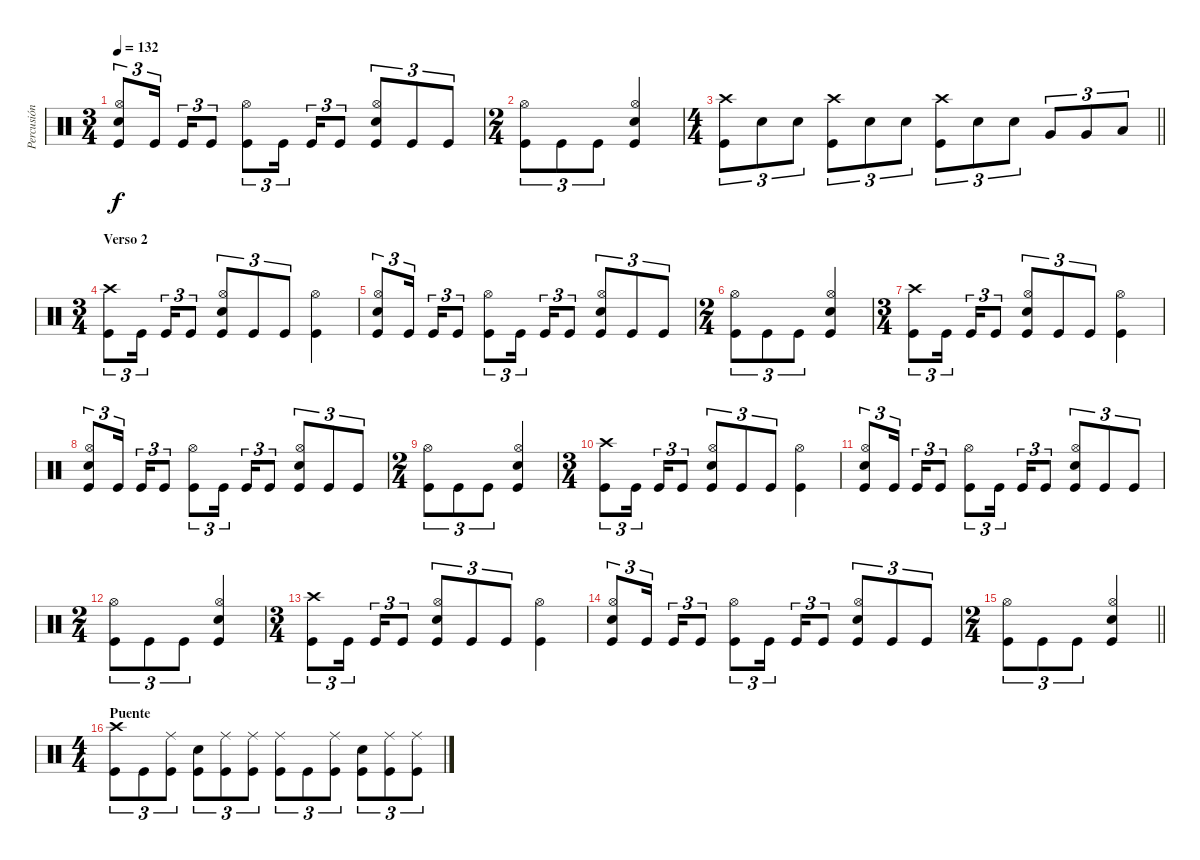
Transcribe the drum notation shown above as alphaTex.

\track ("Percusión" "Percusión") {instrument percussion}
\staff
\articulation defaults
\ts (3 4)
\tempo 132
\clef neutral
\ks c
("Kick (hit)" "Hi-Hat (open)" "Electric Snare (hit)").8{tu (3 2) dy f} "Kick (hit)".16{tu (3 2) beam splitsecondary} "Kick (hit)".16{tu (3 2)} "Kick (hit)".8{tu (3 2)} ("Kick (hit)" "Hi-Hat (open)").8{tu (3 2)} "Kick (hit)".16{tu (3 2) beam splitsecondary} "Kick (hit)".16{tu (3 2)} "Kick (hit)".8{tu (3 2)} ("Kick (hit)" "Hi-Hat (open)" "Electric Snare (hit)").8{tu (3 2)} "Kick (hit)".8{tu (3 2)} "Kick (hit)".8{tu (3 2)} |
\ts (2 4)
("Kick (hit)" "Hi-Hat (open)").8{tu (3 2)} "Kick (hit)".8{tu (3 2)} "Kick (hit)".8{tu (3 2)} ("Kick (hit)" "Hi-Hat (open)" "Electric Snare (hit)").4 |
\ts (4 4)
\barLineRight lightlight
("Kick (hit)" "Crash high (hit)").8{tu (3 2)} "Electric Snare (hit)".8{tu (3 2)} "Electric Snare (hit)".8{tu (3 2)} ("Kick (hit)" "Crash high (hit)").8{tu (3 2)} "Electric Snare (hit)".8{tu (3 2)} "Electric Snare (hit)".8{tu (3 2)} ("Kick (hit)" "Crash high (hit)").8{tu (3 2)} "Electric Snare (hit)".8{tu (3 2)} "Electric Snare (hit)".8{tu (3 2)} "Very Low Tom (hit)".8{tu (3 2)} "Very Low Tom (hit)".8{tu (3 2)} "Low Floor Tom (hit)".8{tu (3 2)} |
\ts (3 4)
\section ("" "Verso 2")
("Kick (hit)" "Crash high (hit)").8{tu (3 2)} "Kick (hit)".16{tu (3 2) beam splitsecondary} "Kick (hit)".16{tu (3 2)} "Kick (hit)".8{tu (3 2)} ("Kick (hit)" "Hi-Hat (open)" "Electric Snare (hit)").8{tu (3 2)} "Kick (hit)".8{tu (3 2)} "Kick (hit)".8{tu (3 2)} ("Kick (hit)" "Hi-Hat (open)").4 |
("Kick (hit)" "Hi-Hat (open)" "Electric Snare (hit)").8{tu (3 2)} "Kick (hit)".16{tu (3 2) beam splitsecondary} "Kick (hit)".16{tu (3 2)} "Kick (hit)".8{tu (3 2)} ("Kick (hit)" "Hi-Hat (open)").8{tu (3 2)} "Kick (hit)".16{tu (3 2) beam splitsecondary} "Kick (hit)".16{tu (3 2)} "Kick (hit)".8{tu (3 2)} ("Kick (hit)" "Hi-Hat (open)" "Electric Snare (hit)").8{tu (3 2)} "Kick (hit)".8{tu (3 2)} "Kick (hit)".8{tu (3 2)} |
\ts (2 4)
("Kick (hit)" "Hi-Hat (open)").8{tu (3 2)} "Kick (hit)".8{tu (3 2)} "Kick (hit)".8{tu (3 2)} ("Kick (hit)" "Hi-Hat (open)" "Electric Snare (hit)").4 |
\ts (3 4)
("Kick (hit)" "Crash high (hit)").8{tu (3 2)} "Kick (hit)".16{tu (3 2) beam splitsecondary} "Kick (hit)".16{tu (3 2)} "Kick (hit)".8{tu (3 2)} ("Kick (hit)" "Hi-Hat (open)" "Electric Snare (hit)").8{tu (3 2)} "Kick (hit)".8{tu (3 2)} "Kick (hit)".8{tu (3 2)} ("Kick (hit)" "Hi-Hat (open)").4 |
("Kick (hit)" "Hi-Hat (open)" "Electric Snare (hit)").8{tu (3 2)} "Kick (hit)".16{tu (3 2) beam splitsecondary} "Kick (hit)".16{tu (3 2)} "Kick (hit)".8{tu (3 2)} ("Kick (hit)" "Hi-Hat (open)").8{tu (3 2)} "Kick (hit)".16{tu (3 2) beam splitsecondary} "Kick (hit)".16{tu (3 2)} "Kick (hit)".8{tu (3 2)} ("Kick (hit)" "Hi-Hat (open)" "Electric Snare (hit)").8{tu (3 2)} "Kick (hit)".8{tu (3 2)} "Kick (hit)".8{tu (3 2)} |
\ts (2 4)
("Kick (hit)" "Hi-Hat (open)").8{tu (3 2)} "Kick (hit)".8{tu (3 2)} "Kick (hit)".8{tu (3 2)} ("Kick (hit)" "Hi-Hat (open)" "Electric Snare (hit)").4 |
\ts (3 4)
("Kick (hit)" "Crash high (hit)").8{tu (3 2)} "Kick (hit)".16{tu (3 2) beam splitsecondary} "Kick (hit)".16{tu (3 2)} "Kick (hit)".8{tu (3 2)} ("Kick (hit)" "Hi-Hat (open)" "Electric Snare (hit)").8{tu (3 2)} "Kick (hit)".8{tu (3 2)} "Kick (hit)".8{tu (3 2)} ("Kick (hit)" "Hi-Hat (open)").4 |
("Kick (hit)" "Hi-Hat (open)" "Electric Snare (hit)").8{tu (3 2)} "Kick (hit)".16{tu (3 2) beam splitsecondary} "Kick (hit)".16{tu (3 2)} "Kick (hit)".8{tu (3 2)} ("Kick (hit)" "Hi-Hat (open)").8{tu (3 2)} "Kick (hit)".16{tu (3 2) beam splitsecondary} "Kick (hit)".16{tu (3 2)} "Kick (hit)".8{tu (3 2)} ("Kick (hit)" "Hi-Hat (open)" "Electric Snare (hit)").8{tu (3 2)} "Kick (hit)".8{tu (3 2)} "Kick (hit)".8{tu (3 2)} |
\ts (2 4)
("Kick (hit)" "Hi-Hat (open)").8{tu (3 2)} "Kick (hit)".8{tu (3 2)} "Kick (hit)".8{tu (3 2)} ("Kick (hit)" "Hi-Hat (open)" "Electric Snare (hit)").4 |
\ts (3 4)
("Kick (hit)" "Crash high (hit)").8{tu (3 2)} "Kick (hit)".16{tu (3 2) beam splitsecondary} "Kick (hit)".16{tu (3 2)} "Kick (hit)".8{tu (3 2)} ("Kick (hit)" "Hi-Hat (open)" "Electric Snare (hit)").8{tu (3 2)} "Kick (hit)".8{tu (3 2)} "Kick (hit)".8{tu (3 2)} ("Kick (hit)" "Hi-Hat (open)").4 |
("Kick (hit)" "Hi-Hat (open)" "Electric Snare (hit)").8{tu (3 2)} "Kick (hit)".16{tu (3 2) beam splitsecondary} "Kick (hit)".16{tu (3 2)} "Kick (hit)".8{tu (3 2)} ("Kick (hit)" "Hi-Hat (open)").8{tu (3 2)} "Kick (hit)".16{tu (3 2) beam splitsecondary} "Kick (hit)".16{tu (3 2)} "Kick (hit)".8{tu (3 2)} ("Kick (hit)" "Hi-Hat (open)" "Electric Snare (hit)").8{tu (3 2)} "Kick (hit)".8{tu (3 2)} "Kick (hit)".8{tu (3 2)} |
\ts (2 4)
\barLineRight lightlight
("Kick (hit)" "Hi-Hat (open)").8{tu (3 2)} "Kick (hit)".8{tu (3 2)} "Kick (hit)".8{tu (3 2)} ("Kick (hit)" "Hi-Hat (open)" "Electric Snare (hit)").4 |
\ts (4 4)
\section ("" "Puente")
("Kick (hit)" "Crash high (hit)").8{tu (3 2)} "Kick (hit)".8{tu (3 2)} ("Kick (hit)" "Ride (middle)").8{tu (3 2)} ("Kick (hit)" "Electric Snare (hit)").8{tu (3 2)} ("Kick (hit)" "Ride (middle)").8{tu (3 2)} ("Kick (hit)" "Ride (middle)").8{tu (3 2)} ("Kick (hit)" "Ride (middle)").8{tu (3 2)} "Kick (hit)".8{tu (3 2)} ("Kick (hit)" "Ride (middle)").8{tu (3 2)} ("Kick (hit)" "Electric Snare (hit)").8{tu (3 2)} ("Kick (hit)" "Ride (middle)").8{tu (3 2)} ("Kick (hit)" "Ride (middle)").8{tu (3 2)}
